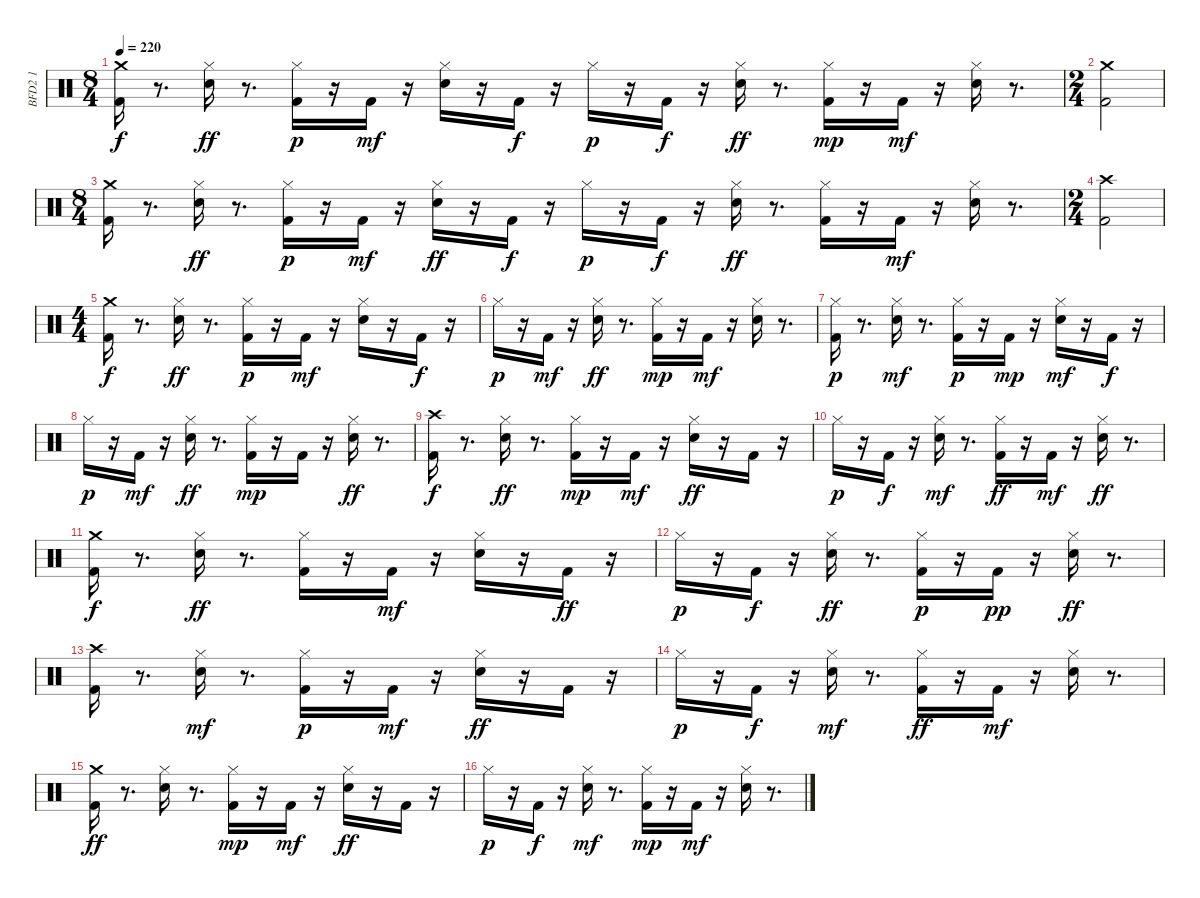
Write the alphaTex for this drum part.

\track ("BFD2 1" "BFD2 1") {instrument percussion}
\staff {score}
\articulation defaults
\ts (8 4)
\tempo 220
\clef neutral
\ks c
("Crash medium (hit)" "Kick (hit) 2").16{dy f} r.8{d} ("Hi-Hat (closed)" "Snare (hit) 2").16{dy ff} r.8{d} ("Kick (hit) 2" "Hi-Hat (closed)").16{dy p} r.16 "Kick (hit) 2".16{dy mf} r.16 ("Hi-Hat (closed)" "Snare (hit) 2").16 r.16 "Kick (hit) 2".16{dy f} r.16 "Hi-Hat (closed)".16{dy p} r.16 "Kick (hit) 2".16{dy f} r.16 ("Hi-Hat (closed)" "Snare (hit) 2").16{dy ff} r.8{d} ("Hi-Hat (closed)" "Kick (hit) 2").16{dy mp} r.16 "Kick (hit) 2".16{dy mf} r.16 ("Snare (hit) 2" "Hi-Hat (closed)").16 r.8{d} |
\ts (2 4)
("Kick (hit) 2" "Crash medium (hit)").2 |
\ts (8 4)
("Kick (hit) 2" "Crash medium (hit)").16 r.8{d} ("Hi-Hat (closed)" "Snare (hit) 2").16{dy ff} r.8{d} ("Hi-Hat (closed)" "Kick (hit) 2").16{dy p} r.16 "Kick (hit) 2".16{dy mf} r.16 ("Hi-Hat (closed)" "Snare (hit) 2").16{dy ff} r.16 "Kick (hit) 2".16{dy f} r.16 "Hi-Hat (closed)".16{dy p} r.16 "Kick (hit) 2".16{dy f} r.16 ("Hi-Hat (closed)" "Snare (hit) 2").16{dy ff} r.8{d} ("Hi-Hat (closed)" "Kick (hit) 2").16 r.16 "Kick (hit) 2".16{dy mf} r.16 ("Snare (hit) 2" "Hi-Hat (closed)").16 r.8{d} |
\ts (2 4)
("Kick (hit) 2" "Crash high (hit)").2 |
\ts (4 4)
("Crash medium (hit)" "Kick (hit) 2").16{dy f} r.8{d} ("Hi-Hat (closed)" "Snare (hit) 2").16{dy ff} r.8{d} ("Hi-Hat (closed)" "Kick (hit) 2").16{dy p} r.16 "Kick (hit) 2".16{dy mf} r.16 ("Snare (hit) 2" "Hi-Hat (closed)").16 r.16 "Kick (hit) 2".16{dy f} r.16 |
"Hi-Hat (closed)".16{dy p} r.16 "Kick (hit) 2".16{dy mf} r.16 ("Hi-Hat (closed)" "Snare (hit) 2").16{dy ff} r.8{d} ("Kick (hit) 2" "Hi-Hat (closed)").16{dy mp} r.16 "Kick (hit) 2".16{dy mf} r.16 ("Snare (hit) 2" "Hi-Hat (closed)").16 r.8{d} |
("Kick (hit) 2" "Hi-Hat (closed)").16{dy p} r.8{d} ("Snare (hit) 2" "Hi-Hat (closed)").16{dy mf} r.8{d} ("Hi-Hat (closed)" "Kick (hit) 2").16{dy p} r.16 "Kick (hit) 2".16{dy mp} r.16 ("Snare (hit) 2" "Hi-Hat (closed)").16{dy mf} r.16 "Kick (hit) 2".16{dy f} r.16 |
"Hi-Hat (closed)".16{dy p} r.16 "Kick (hit) 2".16{dy mf} r.16 ("Hi-Hat (closed)" "Snare (hit) 2").16{dy ff} r.8{d} ("Kick (hit) 2" "Hi-Hat (closed)").16{dy mp} r.16 "Kick (hit) 2".16 r.16 ("Hi-Hat (closed)" "Snare (hit) 2").16{dy ff} r.8{d} |
("Kick (hit) 2" "Crash high (hit)").16{dy f} r.8{d} ("Hi-Hat (closed)" "Snare (hit) 2").16{dy ff} r.8{d} ("Kick (hit) 2" "Hi-Hat (closed)").16{dy mp} r.16 "Kick (hit) 2".16{dy mf} r.16 ("Hi-Hat (closed)" "Snare (hit) 2").16{dy ff} r.16 "Kick (hit) 2".16 r.16 |
"Hi-Hat (closed)".16{dy p} r.16 "Kick (hit) 2".16{dy f} r.16 ("Snare (hit) 2" "Hi-Hat (closed)").16{dy mf} r.8{d} ("Hi-Hat (closed)" "Kick (hit) 2").16{dy ff} r.16 "Kick (hit) 2".16{dy mf} r.16 ("Hi-Hat (closed)" "Snare (hit) 2").16{dy ff} r.8{d} |
("Crash medium (hit)" "Kick (hit) 2").16{dy f} r.8{d} ("Hi-Hat (closed)" "Snare (hit) 2").16{dy ff} r.8{d} ("Hi-Hat (closed)" "Kick (hit) 2").16 r.16 "Kick (hit) 2".16{dy mf} r.16 ("Snare (hit) 2" "Hi-Hat (closed)").16 r.16 "Kick (hit) 2".16{dy ff} r.16 |
"Hi-Hat (closed)".16{dy p} r.16 "Kick (hit) 2".16{dy f} r.16 ("Hi-Hat (closed)" "Snare (hit) 2").16{dy ff} r.8{d} ("Hi-Hat (closed)" "Kick (hit) 2").16{dy p} r.16 "Kick (hit) 2".16{dy pp} r.16 ("Hi-Hat (closed)" "Snare (hit) 2").16{dy ff} r.8{d} |
("Crash high (hit)" "Kick (hit) 2").16 r.8{d} ("Snare (hit) 2" "Hi-Hat (closed)").16{dy mf} r.8{d} ("Hi-Hat (closed)" "Kick (hit) 2").16{dy p} r.16 "Kick (hit) 2".16{dy mf} r.16 ("Hi-Hat (closed)" "Snare (hit) 2").16{dy ff} r.16 "Kick (hit) 2".16 r.16 |
"Hi-Hat (closed)".16{dy p} r.16 "Kick (hit) 2".16{dy f} r.16 ("Hi-Hat (closed)" "Snare (hit) 2").16{dy mf} r.8{d} ("Hi-Hat (closed)" "Kick (hit) 2").16{dy ff} r.16 "Kick (hit) 2".16{dy mf} r.16 ("Snare (hit) 2" "Hi-Hat (closed)").16 r.8{d} |
("Kick (hit) 2" "Crash medium (hit)").16{dy ff} r.8{d} ("Hi-Hat (closed)" "Snare (hit) 2").16 r.8{d} ("Hi-Hat (closed)" "Kick (hit) 2").16{dy mp} r.16 "Kick (hit) 2".16{dy mf} r.16 ("Hi-Hat (closed)" "Snare (hit) 2").16{dy ff} r.16 "Kick (hit) 2".16 r.16 |
"Hi-Hat (closed)".16{dy p} r.16 "Kick (hit) 2".16{dy f} r.16 ("Snare (hit) 2" "Hi-Hat (closed)").16{dy mf} r.8{d} ("Hi-Hat (closed)" "Kick (hit) 2").16{dy mp} r.16 "Kick (hit) 2".16{dy mf} r.16 ("Snare (hit) 2" "Hi-Hat (closed)").16 r.8{d}
